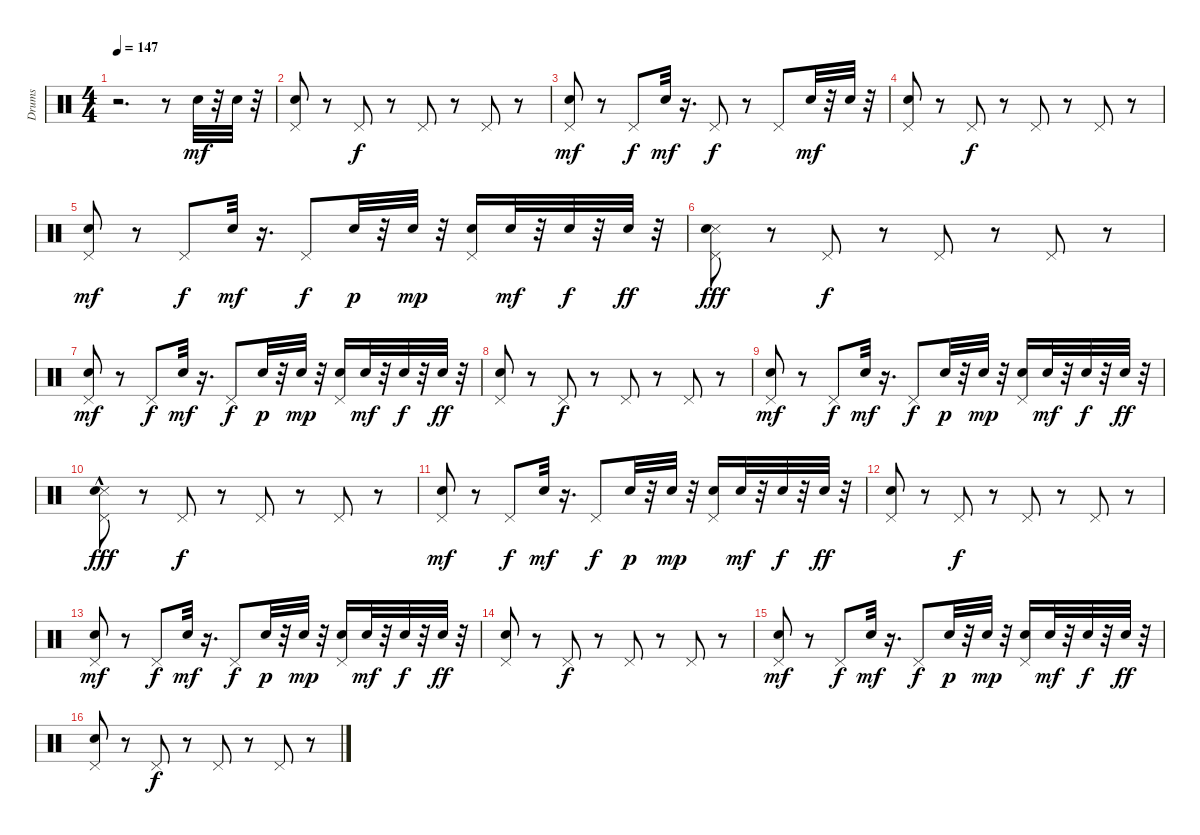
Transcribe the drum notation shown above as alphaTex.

\track ("Drums" "Drums") {instrument percussion}
\staff {score}
\articulation defaults
\ts (4 4)
\tempo 147
\clef neutral
\ks c
r.2{d dy mf} r.8 "Snare (hit) 2".32 r.32 "Snare (hit) 2".32 r.32 |
("Pedal Hi-Hat (hit)" "Snare (hit) 2").8 r.8 "Pedal Hi-Hat (hit)".8{dy f} r.8 "Pedal Hi-Hat (hit)".8 r.8 "Pedal Hi-Hat (hit)".8 r.8 |
("Pedal Hi-Hat (hit)" "Snare (hit) 2").8{dy mf} r.8 "Pedal Hi-Hat (hit)".8{dy f} "Snare (hit) 2".32{dy mf} r.16{d} "Pedal Hi-Hat (hit)".8{dy f} r.8 "Pedal Hi-Hat (hit)".8 "Snare (hit) 2".32{dy mf} r.32 "Snare (hit) 2".32 r.32 |
("Pedal Hi-Hat (hit)" "Snare (hit) 2").8 r.8 "Pedal Hi-Hat (hit)".8{dy f} r.8 "Pedal Hi-Hat (hit)".8 r.8 "Pedal Hi-Hat (hit)".8 r.8 |
("Pedal Hi-Hat (hit)" "Snare (hit) 2").8{dy mf} r.8 "Pedal Hi-Hat (hit)".8{dy f} "Snare (hit) 2".32{dy mf} r.16{d} "Pedal Hi-Hat (hit)".8{dy f} "Snare (hit) 2".32{dy p} r.32 "Snare (hit) 2".32{dy mp} r.32 ("Pedal Hi-Hat (hit)" "Snare (hit) 2").16 "Snare (hit) 2".32{dy mf} r.32 "Snare (hit) 2".32{dy f} r.32 "Snare (hit) 2".32{dy ff} r.32 |
("Pedal Hi-Hat (hit)" "Snare (side stick) 3" "Snare (hit) 2").8{dy fff} r.8 "Pedal Hi-Hat (hit)".8{dy f} r.8 "Pedal Hi-Hat (hit)".8 r.8 "Pedal Hi-Hat (hit)".8 r.8 |
("Pedal Hi-Hat (hit)" "Snare (hit) 2").8{dy mf} r.8 "Pedal Hi-Hat (hit)".8{dy f} "Snare (hit) 2".32{dy mf} r.16{d} "Pedal Hi-Hat (hit)".8{dy f} "Snare (hit) 2".32{dy p} r.32 "Snare (hit) 2".32{dy mp} r.32 ("Pedal Hi-Hat (hit)" "Snare (hit) 2").16 "Snare (hit) 2".32{dy mf} r.32 "Snare (hit) 2".32{dy f} r.32 "Snare (hit) 2".32{dy ff} r.32 |
("Pedal Hi-Hat (hit)" "Snare (hit) 2").8 r.8 "Pedal Hi-Hat (hit)".8{dy f} r.8 "Pedal Hi-Hat (hit)".8 r.8 "Pedal Hi-Hat (hit)".8 r.8 |
("Pedal Hi-Hat (hit)" "Snare (hit) 2").8{dy mf} r.8 "Pedal Hi-Hat (hit)".8{dy f} "Snare (hit) 2".32{dy mf} r.16{d} "Pedal Hi-Hat (hit)".8{dy f} "Snare (hit) 2".32{dy p} r.32 "Snare (hit) 2".32{dy mp} r.32 ("Pedal Hi-Hat (hit)" "Snare (hit) 2").16 "Snare (hit) 2".32{dy mf} r.32 "Snare (hit) 2".32{dy f} r.32 "Snare (hit) 2".32{dy ff} r.32 |
("Pedal Hi-Hat (hit)" "Snare (side stick) 3"{hac} "Snare (hit) 2").8{dy fff} r.8 "Pedal Hi-Hat (hit)".8{dy f} r.8 "Pedal Hi-Hat (hit)".8 r.8 "Pedal Hi-Hat (hit)".8 r.8 |
("Pedal Hi-Hat (hit)" "Snare (hit) 2").8{dy mf} r.8 "Pedal Hi-Hat (hit)".8{dy f} "Snare (hit) 2".32{dy mf} r.16{d} "Pedal Hi-Hat (hit)".8{dy f} "Snare (hit) 2".32{dy p} r.32 "Snare (hit) 2".32{dy mp} r.32 ("Pedal Hi-Hat (hit)" "Snare (hit) 2").16 "Snare (hit) 2".32{dy mf} r.32 "Snare (hit) 2".32{dy f} r.32 "Snare (hit) 2".32{dy ff} r.32 |
("Pedal Hi-Hat (hit)" "Snare (hit) 2").8 r.8 "Pedal Hi-Hat (hit)".8{dy f} r.8 "Pedal Hi-Hat (hit)".8 r.8 "Pedal Hi-Hat (hit)".8 r.8 |
("Pedal Hi-Hat (hit)" "Snare (hit) 2").8{dy mf} r.8 "Pedal Hi-Hat (hit)".8{dy f} "Snare (hit) 2".32{dy mf} r.16{d} "Pedal Hi-Hat (hit)".8{dy f} "Snare (hit) 2".32{dy p} r.32 "Snare (hit) 2".32{dy mp} r.32 ("Pedal Hi-Hat (hit)" "Snare (hit) 2").16 "Snare (hit) 2".32{dy mf} r.32 "Snare (hit) 2".32{dy f} r.32 "Snare (hit) 2".32{dy ff} r.32 |
("Pedal Hi-Hat (hit)" "Snare (hit) 2").8 r.8 "Pedal Hi-Hat (hit)".8{dy f} r.8 "Pedal Hi-Hat (hit)".8 r.8 "Pedal Hi-Hat (hit)".8 r.8 |
("Pedal Hi-Hat (hit)" "Snare (hit) 2").8{dy mf} r.8 "Pedal Hi-Hat (hit)".8{dy f} "Snare (hit) 2".32{dy mf} r.16{d} "Pedal Hi-Hat (hit)".8{dy f} "Snare (hit) 2".32{dy p} r.32 "Snare (hit) 2".32{dy mp} r.32 ("Pedal Hi-Hat (hit)" "Snare (hit) 2").16 "Snare (hit) 2".32{dy mf} r.32 "Snare (hit) 2".32{dy f} r.32 "Snare (hit) 2".32{dy ff} r.32 |
("Pedal Hi-Hat (hit)" "Snare (hit) 2").8 r.8 "Pedal Hi-Hat (hit)".8{dy f} r.8 "Pedal Hi-Hat (hit)".8 r.8 "Pedal Hi-Hat (hit)".8 r.8
